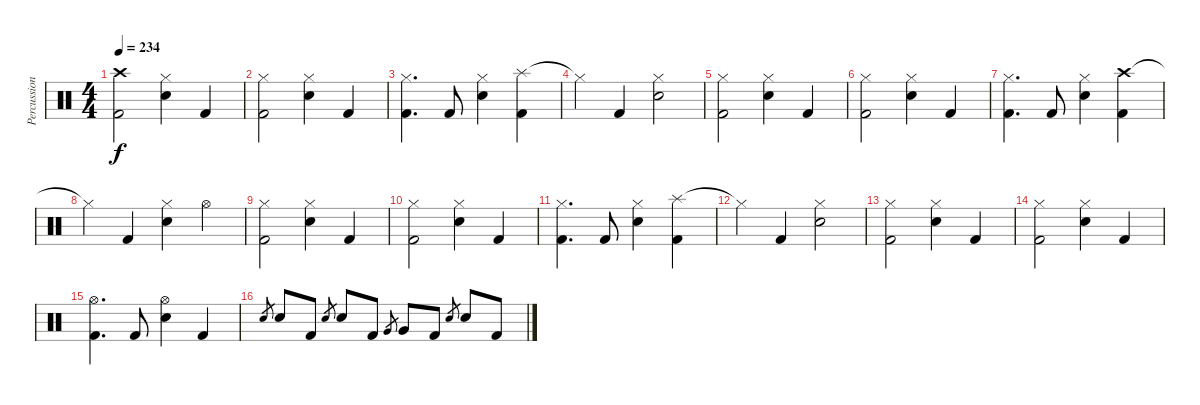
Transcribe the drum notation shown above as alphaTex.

\track ("Percussions" "Percussion") {instrument percussion}
\staff {score}
\articulation defaults
\ts (4 4)
\tempo 234
\clef neutral
\ks c
("Crash high (hit)" "Kick (hit) 2").2{dy f} ("Hi-Hat (closed)" "Snare (hit) 2").4 "Kick (hit) 2".4 |
("Hi-Hat (closed)" "Kick (hit) 2").2 ("Hi-Hat (closed)" "Snare (hit) 2").4 "Kick (hit) 2".4 |
("Hi-Hat (closed)" "Kick (hit) 2").4{d} "Kick (hit) 2".8 ("Hi-Hat (closed)" "Snare (hit) 2").4 ("Splash (hit)" "Kick (hit) 2").4 |
"Hi-Hat (closed)"{t}.4 "Kick (hit) 2".4 ("Hi-Hat (closed)" "Snare (hit) 2").2 |
("Hi-Hat (closed)" "Kick (hit) 2").2 ("Hi-Hat (closed)" "Snare (hit) 2").4 "Kick (hit) 2".4 |
("Hi-Hat (closed)" "Kick (hit) 2").2 ("Hi-Hat (closed)" "Snare (hit) 2").4 "Kick (hit) 2".4 |
("Hi-Hat (closed)" "Kick (hit) 2").4{d} "Kick (hit) 2".8 ("Hi-Hat (closed)" "Snare (hit) 2").4 ("Crash high (hit)" "Kick (hit) 2").4 |
"Hi-Hat (closed)"{t}.4 "Kick (hit) 2".4 ("Hi-Hat (closed)" "Snare (hit) 2").4 "Hi-Hat (open)".4 |
("Hi-Hat (closed)" "Kick (hit) 2").2 ("Hi-Hat (closed)" "Snare (hit) 2").4 "Kick (hit) 2".4 |
("Hi-Hat (closed)" "Kick (hit) 2").2 ("Hi-Hat (closed)" "Snare (hit) 2").4 "Kick (hit) 2".4 |
("Hi-Hat (closed)" "Kick (hit) 2").4{d} "Kick (hit) 2".8 ("Hi-Hat (closed)" "Snare (hit) 2").4 ("Splash (hit)" "Kick (hit) 2").4 |
"Hi-Hat (closed)"{t}.4 "Kick (hit) 2".4 ("Hi-Hat (closed)" "Snare (hit) 2").2 |
("Hi-Hat (closed)" "Kick (hit) 2").2 ("Hi-Hat (closed)" "Snare (hit) 2").4 "Kick (hit) 2".4 |
("Hi-Hat (closed)" "Kick (hit) 2").2 ("Hi-Hat (closed)" "Snare (hit) 2").4 "Kick (hit) 2".4 |
("Hi-Hat (open)" "Kick (hit) 2").4{d} "Kick (hit) 2".8 ("Hi-Hat (open)" "Snare (hit) 2").4 "Kick (hit) 2".4 |
"Snare (hit) 2".8{gr} "Snare (hit) 2".8 "Kick (hit) 2".8 "Snare (hit) 2".8{gr} "Snare (hit) 2".8 "Kick (hit) 2".8 "Very Low Tom (hit)".8{gr} "Very Low Tom (hit)".8 "Kick (hit) 2".8 "Snare (hit) 2".8{gr} "Snare (hit) 2".8 "Kick (hit) 2".8
